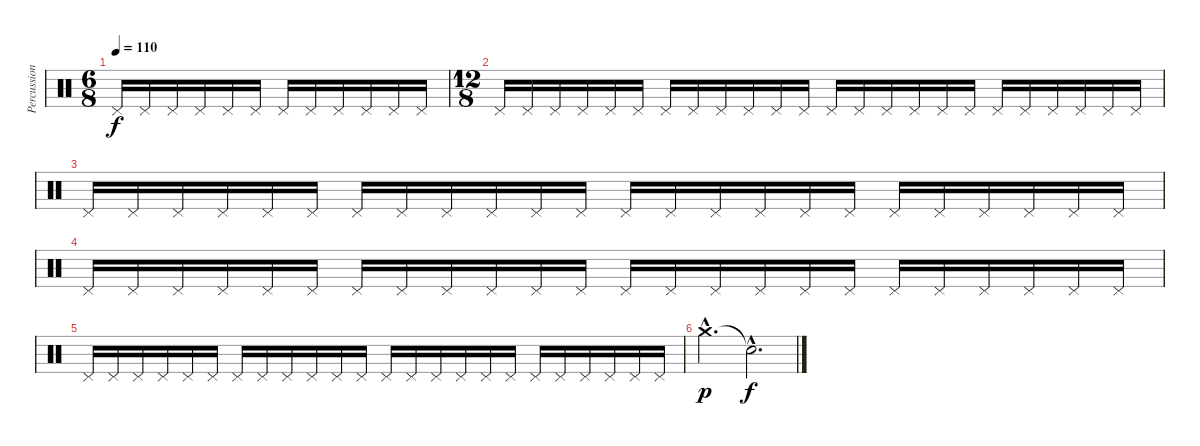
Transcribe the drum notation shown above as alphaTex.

\track ("Percussion" "Percussion") {instrument percussion}
\staff {score}
\articulation defaults
\ts (6 8)
\tempo 110
\clef neutral
\ks c "Pedal Hi-Hat (hit)".16{dy f} "Pedal Hi-Hat (hit)".16 "Pedal Hi-Hat (hit)".16 "Pedal Hi-Hat (hit)".16 "Pedal Hi-Hat (hit)".16 "Pedal Hi-Hat (hit)".16 "Pedal Hi-Hat (hit)".16 "Pedal Hi-Hat (hit)".16 "Pedal Hi-Hat (hit)".16 "Pedal Hi-Hat (hit)".16 "Pedal Hi-Hat (hit)".16 "Pedal Hi-Hat (hit)".16
|
\ts (12 8)
"Pedal Hi-Hat (hit)".16 "Pedal Hi-Hat (hit)".16 "Pedal Hi-Hat (hit)".16 "Pedal Hi-Hat (hit)".16 "Pedal Hi-Hat (hit)".16 "Pedal Hi-Hat (hit)".16 "Pedal Hi-Hat (hit)".16 "Pedal Hi-Hat (hit)".16 "Pedal Hi-Hat (hit)".16 "Pedal Hi-Hat (hit)".16 "Pedal Hi-Hat (hit)".16 "Pedal Hi-Hat (hit)".16 "Pedal Hi-Hat (hit)".16 "Pedal Hi-Hat (hit)".16 "Pedal Hi-Hat (hit)".16 "Pedal Hi-Hat (hit)".16 "Pedal Hi-Hat (hit)".16 "Pedal Hi-Hat (hit)".16 "Pedal Hi-Hat (hit)".16 "Pedal Hi-Hat (hit)".16 "Pedal Hi-Hat (hit)".16 "Pedal Hi-Hat (hit)".16 "Pedal Hi-Hat (hit)".16 "Pedal Hi-Hat (hit)".16 |
"Pedal Hi-Hat (hit)".16 "Pedal Hi-Hat (hit)".16 "Pedal Hi-Hat (hit)".16 "Pedal Hi-Hat (hit)".16 "Pedal Hi-Hat (hit)".16 "Pedal Hi-Hat (hit)".16 "Pedal Hi-Hat (hit)".16 "Pedal Hi-Hat (hit)".16 "Pedal Hi-Hat (hit)".16 "Pedal Hi-Hat (hit)".16 "Pedal Hi-Hat (hit)".16 "Pedal Hi-Hat (hit)".16 "Pedal Hi-Hat (hit)".16 "Pedal Hi-Hat (hit)".16 "Pedal Hi-Hat (hit)".16 "Pedal Hi-Hat (hit)".16 "Pedal Hi-Hat (hit)".16 "Pedal Hi-Hat (hit)".16 "Pedal Hi-Hat (hit)".16 "Pedal Hi-Hat (hit)".16 "Pedal Hi-Hat (hit)".16 "Pedal Hi-Hat (hit)".16 "Pedal Hi-Hat (hit)".16 "Pedal Hi-Hat (hit)".16 |
"Pedal Hi-Hat (hit)".16 "Pedal Hi-Hat (hit)".16 "Pedal Hi-Hat (hit)".16 "Pedal Hi-Hat (hit)".16 "Pedal Hi-Hat (hit)".16 "Pedal Hi-Hat (hit)".16 "Pedal Hi-Hat (hit)".16 "Pedal Hi-Hat (hit)".16 "Pedal Hi-Hat (hit)".16 "Pedal Hi-Hat (hit)".16 "Pedal Hi-Hat (hit)".16 "Pedal Hi-Hat (hit)".16 "Pedal Hi-Hat (hit)".16 "Pedal Hi-Hat (hit)".16 "Pedal Hi-Hat (hit)".16 "Pedal Hi-Hat (hit)".16 "Pedal Hi-Hat (hit)".16 "Pedal Hi-Hat (hit)".16 "Pedal Hi-Hat (hit)".16 "Pedal Hi-Hat (hit)".16 "Pedal Hi-Hat (hit)".16 "Pedal Hi-Hat (hit)".16 "Pedal Hi-Hat (hit)".16 "Pedal Hi-Hat (hit)".16 |
"Pedal Hi-Hat (hit)".16 "Pedal Hi-Hat (hit)".16 "Pedal Hi-Hat (hit)".16 "Pedal Hi-Hat (hit)".16 "Pedal Hi-Hat (hit)".16 "Pedal Hi-Hat (hit)".16 "Pedal Hi-Hat (hit)".16 "Pedal Hi-Hat (hit)".16 "Pedal Hi-Hat (hit)".16 "Pedal Hi-Hat (hit)".16 "Pedal Hi-Hat (hit)".16 "Pedal Hi-Hat (hit)".16 "Pedal Hi-Hat (hit)".16 "Pedal Hi-Hat (hit)".16 "Pedal Hi-Hat (hit)".16 "Pedal Hi-Hat (hit)".16 "Pedal Hi-Hat (hit)".16 "Pedal Hi-Hat (hit)".16 "Pedal Hi-Hat (hit)".16 "Pedal Hi-Hat (hit)".16 "Pedal Hi-Hat (hit)".16 "Pedal Hi-Hat (hit)".16 "Pedal Hi-Hat (hit)".16 "Pedal Hi-Hat (hit)".16 |
"Crash medium (hit)"{hac}.2{d dy p} "Snare (hit)"{hac t}.2{d dy f}
